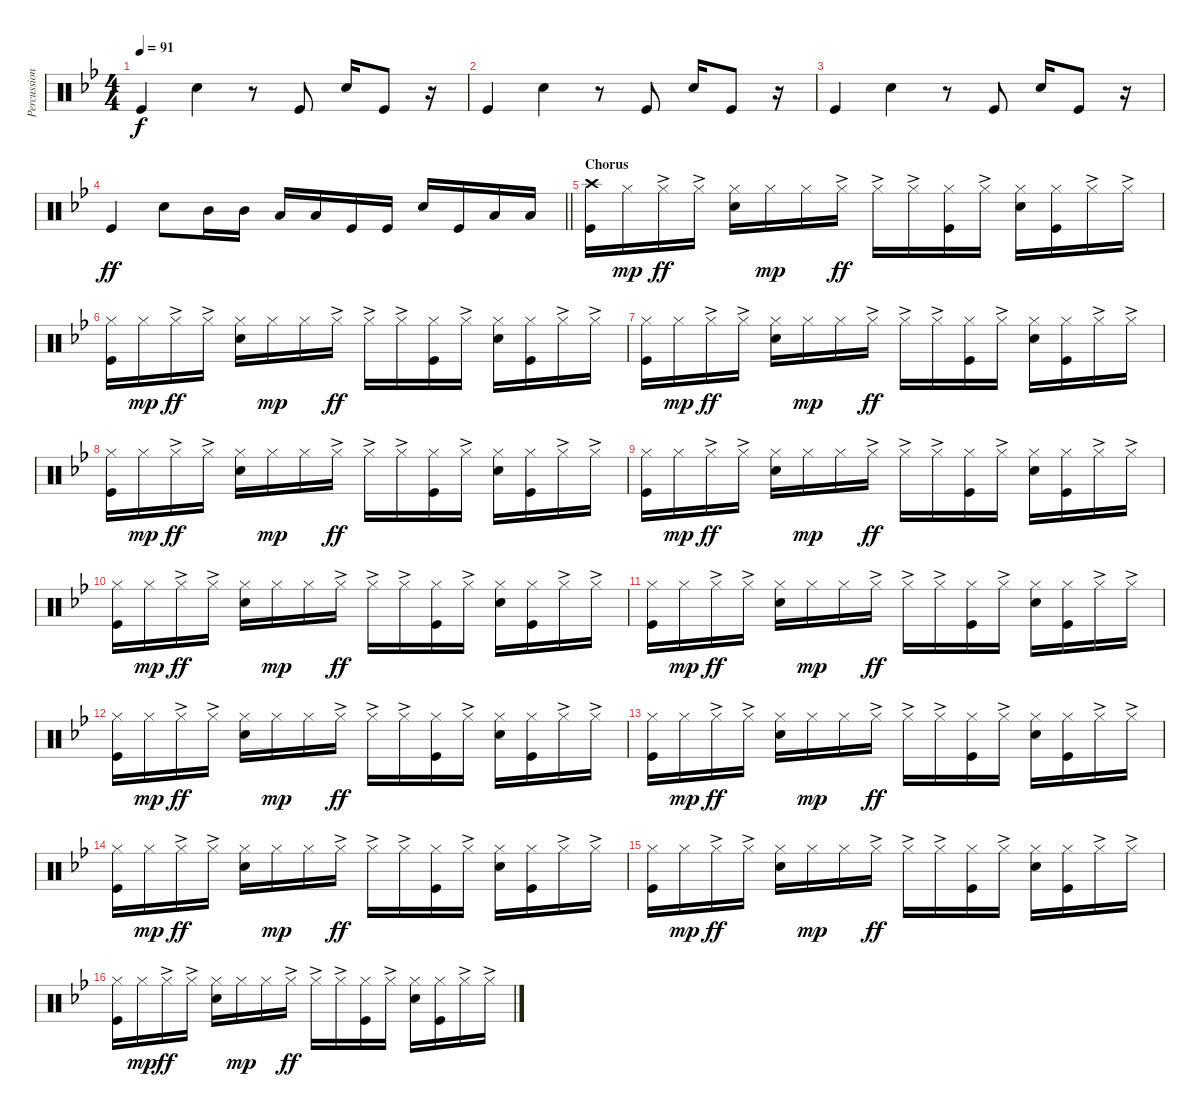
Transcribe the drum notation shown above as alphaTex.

\track ("Percussion" "Percussion") {instrument percussion}
\staff {score}
\articulation defaults
\ts (4 4)
\tempo 91
\clef neutral
\ks bb "Kick (hit)".4{dy f} "Electric Snare (hit)".4
r.8 "Kick (hit)".8 "Electric Snare (hit)".16 "Kick (hit)".8 r.16 |
"Kick (hit)".4 "Electric Snare (hit)".4 r.8 "Kick (hit)".8 "Electric Snare (hit)".16 "Kick (hit)".8 r.16 |
"Kick (hit)".4 "Electric Snare (hit)".4 r.8 "Kick (hit)".8 "Electric Snare (hit)".16 "Kick (hit)".8 r.16 |
\barLineRight lightlight "Kick (hit)".4{dy ff} "Electric Snare (hit)".8 "Mid Tom (hit)".16 "Mid Tom (hit)".16 "Low Tom (hit)".16 "Low Tom (hit)".16 "Kick (hit)".16 "Kick (hit)".16 "Electric Snare (hit)".16 "Kick (hit)".16 "Low Floor Tom (hit)".16 "Low Floor Tom (hit)".16
|
\section ("" "Chorus")
("Crash high (hit)" "Kick (hit)").16 "Hi-Hat (closed)".16{dy mp} "Hi-Hat (closed)"{ac}.16{dy ff} "Hi-Hat (closed)"{ac}.16 ("Hi-Hat (closed)" "Snare (hit) 2").16 "Hi-Hat (closed)".16{dy mp} "Hi-Hat (closed)".16 "Hi-Hat (closed)"{ac}.16{dy ff} "Hi-Hat (closed)"{ac}.16 "Hi-Hat (closed)"{ac}.16 ("Hi-Hat (closed)" "Kick (hit)").16 "Hi-Hat (closed)"{ac}.16 ("Hi-Hat (closed)" "Snare (hit) 2").16 ("Hi-Hat (closed)" "Kick (hit)").16 "Hi-Hat (closed)"{ac}.16 "Hi-Hat (closed)"{ac}.16 |
("Hi-Hat (closed)" "Kick (hit)").16 "Hi-Hat (closed)".16{dy mp} "Hi-Hat (closed)"{ac}.16{dy ff} "Hi-Hat (closed)"{ac}.16 ("Hi-Hat (closed)" "Snare (hit) 2").16 "Hi-Hat (closed)".16{dy mp} "Hi-Hat (closed)".16 "Hi-Hat (closed)"{ac}.16{dy ff} "Hi-Hat (closed)"{ac}.16 "Hi-Hat (closed)"{ac}.16 ("Hi-Hat (closed)" "Kick (hit)").16 "Hi-Hat (closed)"{ac}.16 ("Hi-Hat (closed)" "Snare (hit) 2").16 ("Hi-Hat (closed)" "Kick (hit)").16 "Hi-Hat (closed)"{ac}.16 "Hi-Hat (closed)"{ac}.16 |
("Hi-Hat (closed)" "Kick (hit)").16 "Hi-Hat (closed)".16{dy mp} "Hi-Hat (closed)"{ac}.16{dy ff} "Hi-Hat (closed)"{ac}.16 ("Hi-Hat (closed)" "Snare (hit) 2").16 "Hi-Hat (closed)".16{dy mp} "Hi-Hat (closed)".16 "Hi-Hat (closed)"{ac}.16{dy ff} "Hi-Hat (closed)"{ac}.16 "Hi-Hat (closed)"{ac}.16 ("Hi-Hat (closed)" "Kick (hit)").16 "Hi-Hat (closed)"{ac}.16 ("Hi-Hat (closed)" "Snare (hit) 2").16 ("Hi-Hat (closed)" "Kick (hit)").16 "Hi-Hat (closed)"{ac}.16 "Hi-Hat (closed)"{ac}.16 |
("Hi-Hat (closed)" "Kick (hit)").16 "Hi-Hat (closed)".16{dy mp} "Hi-Hat (closed)"{ac}.16{dy ff} "Hi-Hat (closed)"{ac}.16 ("Hi-Hat (closed)" "Snare (hit) 2").16 "Hi-Hat (closed)".16{dy mp} "Hi-Hat (closed)".16 "Hi-Hat (closed)"{ac}.16{dy ff} "Hi-Hat (closed)"{ac}.16 "Hi-Hat (closed)"{ac}.16 ("Hi-Hat (closed)" "Kick (hit)").16 "Hi-Hat (closed)"{ac}.16 ("Hi-Hat (closed)" "Snare (hit) 2").16 ("Hi-Hat (closed)" "Kick (hit)").16 "Hi-Hat (closed)"{ac}.16 "Hi-Hat (closed)"{ac}.16 |
("Hi-Hat (closed)" "Kick (hit)").16 "Hi-Hat (closed)".16{dy mp} "Hi-Hat (closed)"{ac}.16{dy ff} "Hi-Hat (closed)"{ac}.16 ("Hi-Hat (closed)" "Snare (hit) 2").16 "Hi-Hat (closed)".16{dy mp} "Hi-Hat (closed)".16 "Hi-Hat (closed)"{ac}.16{dy ff} "Hi-Hat (closed)"{ac}.16 "Hi-Hat (closed)"{ac}.16 ("Hi-Hat (closed)" "Kick (hit)").16 "Hi-Hat (closed)"{ac}.16 ("Hi-Hat (closed)" "Snare (hit) 2").16 ("Hi-Hat (closed)" "Kick (hit)").16 "Hi-Hat (closed)"{ac}.16 "Hi-Hat (closed)"{ac}.16 |
("Hi-Hat (closed)" "Kick (hit)").16 "Hi-Hat (closed)".16{dy mp} "Hi-Hat (closed)"{ac}.16{dy ff} "Hi-Hat (closed)"{ac}.16 ("Hi-Hat (closed)" "Snare (hit) 2").16 "Hi-Hat (closed)".16{dy mp} "Hi-Hat (closed)".16 "Hi-Hat (closed)"{ac}.16{dy ff} "Hi-Hat (closed)"{ac}.16 "Hi-Hat (closed)"{ac}.16 ("Hi-Hat (closed)" "Kick (hit)").16 "Hi-Hat (closed)"{ac}.16 ("Hi-Hat (closed)" "Snare (hit) 2").16 ("Hi-Hat (closed)" "Kick (hit)").16 "Hi-Hat (closed)"{ac}.16 "Hi-Hat (closed)"{ac}.16 |
("Hi-Hat (closed)" "Kick (hit)").16 "Hi-Hat (closed)".16{dy mp} "Hi-Hat (closed)"{ac}.16{dy ff} "Hi-Hat (closed)"{ac}.16 ("Hi-Hat (closed)" "Snare (hit) 2").16 "Hi-Hat (closed)".16{dy mp} "Hi-Hat (closed)".16 "Hi-Hat (closed)"{ac}.16{dy ff} "Hi-Hat (closed)"{ac}.16 "Hi-Hat (closed)"{ac}.16 ("Hi-Hat (closed)" "Kick (hit)").16 "Hi-Hat (closed)"{ac}.16 ("Hi-Hat (closed)" "Snare (hit) 2").16 ("Hi-Hat (closed)" "Kick (hit)").16 "Hi-Hat (closed)"{ac}.16 "Hi-Hat (closed)"{ac}.16 |
("Hi-Hat (closed)" "Kick (hit)").16 "Hi-Hat (closed)".16{dy mp} "Hi-Hat (closed)"{ac}.16{dy ff} "Hi-Hat (closed)"{ac}.16 ("Hi-Hat (closed)" "Snare (hit) 2").16 "Hi-Hat (closed)".16{dy mp} "Hi-Hat (closed)".16 "Hi-Hat (closed)"{ac}.16{dy ff} "Hi-Hat (closed)"{ac}.16 "Hi-Hat (closed)"{ac}.16 ("Hi-Hat (closed)" "Kick (hit)").16 "Hi-Hat (closed)"{ac}.16 ("Hi-Hat (closed)" "Snare (hit) 2").16 ("Hi-Hat (closed)" "Kick (hit)").16 "Hi-Hat (closed)"{ac}.16 "Hi-Hat (closed)"{ac}.16 |
("Hi-Hat (closed)" "Kick (hit)").16 "Hi-Hat (closed)".16{dy mp} "Hi-Hat (closed)"{ac}.16{dy ff} "Hi-Hat (closed)"{ac}.16 ("Hi-Hat (closed)" "Snare (hit) 2").16 "Hi-Hat (closed)".16{dy mp} "Hi-Hat (closed)".16 "Hi-Hat (closed)"{ac}.16{dy ff} "Hi-Hat (closed)"{ac}.16 "Hi-Hat (closed)"{ac}.16 ("Hi-Hat (closed)" "Kick (hit)").16 "Hi-Hat (closed)"{ac}.16 ("Hi-Hat (closed)" "Snare (hit) 2").16 ("Hi-Hat (closed)" "Kick (hit)").16 "Hi-Hat (closed)"{ac}.16 "Hi-Hat (closed)"{ac}.16 |
("Hi-Hat (closed)" "Kick (hit)").16 "Hi-Hat (closed)".16{dy mp} "Hi-Hat (closed)"{ac}.16{dy ff} "Hi-Hat (closed)"{ac}.16 ("Hi-Hat (closed)" "Snare (hit) 2").16 "Hi-Hat (closed)".16{dy mp} "Hi-Hat (closed)".16 "Hi-Hat (closed)"{ac}.16{dy ff} "Hi-Hat (closed)"{ac}.16 "Hi-Hat (closed)"{ac}.16 ("Hi-Hat (closed)" "Kick (hit)").16 "Hi-Hat (closed)"{ac}.16 ("Hi-Hat (closed)" "Snare (hit) 2").16 ("Hi-Hat (closed)" "Kick (hit)").16 "Hi-Hat (closed)"{ac}.16 "Hi-Hat (closed)"{ac}.16 |
("Hi-Hat (closed)" "Kick (hit)").16 "Hi-Hat (closed)".16{dy mp} "Hi-Hat (closed)"{ac}.16{dy ff} "Hi-Hat (closed)"{ac}.16 ("Hi-Hat (closed)" "Snare (hit) 2").16 "Hi-Hat (closed)".16{dy mp} "Hi-Hat (closed)".16 "Hi-Hat (closed)"{ac}.16{dy ff} "Hi-Hat (closed)"{ac}.16 "Hi-Hat (closed)"{ac}.16 ("Hi-Hat (closed)" "Kick (hit)").16 "Hi-Hat (closed)"{ac}.16 ("Hi-Hat (closed)" "Snare (hit) 2").16 ("Hi-Hat (closed)" "Kick (hit)").16 "Hi-Hat (closed)"{ac}.16 "Hi-Hat (closed)"{ac}.16 |
("Hi-Hat (closed)" "Kick (hit)").16 "Hi-Hat (closed)".16{dy mp} "Hi-Hat (closed)"{ac}.16{dy ff} "Hi-Hat (closed)"{ac}.16 ("Hi-Hat (closed)" "Snare (hit) 2").16 "Hi-Hat (closed)".16{dy mp} "Hi-Hat (closed)".16 "Hi-Hat (closed)"{ac}.16{dy ff} "Hi-Hat (closed)"{ac}.16 "Hi-Hat (closed)"{ac}.16 ("Hi-Hat (closed)" "Kick (hit)").16 "Hi-Hat (closed)"{ac}.16 ("Hi-Hat (closed)" "Snare (hit) 2").16 ("Hi-Hat (closed)" "Kick (hit)").16 "Hi-Hat (closed)"{ac}.16 "Hi-Hat (closed)"{ac}.16
